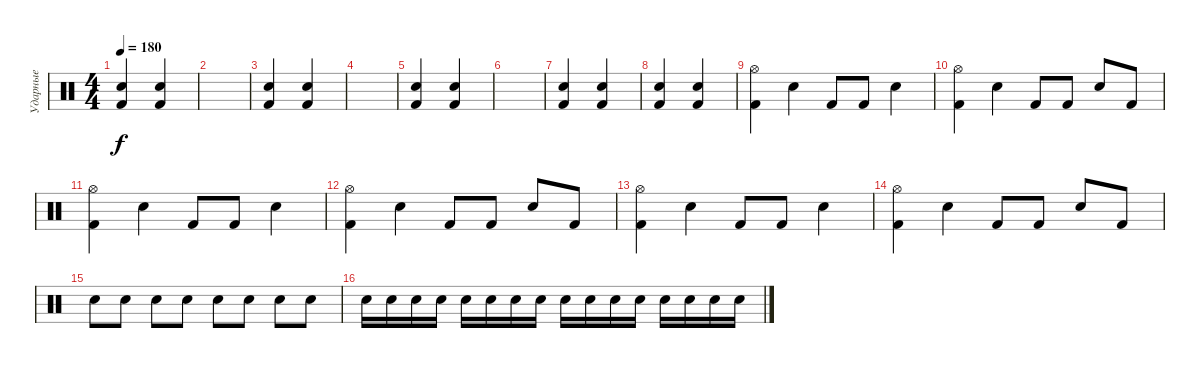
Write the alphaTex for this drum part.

\track ("Ударные" "Ударные") {instrument percussion}
\staff
\articulation defaults
\ts (4 4)
\tempo 180
\clef neutral
\ks c
("Kick (hit) 2" "Electric Snare (hit)").4{dy f} ("Kick (hit) 2" "Electric Snare (hit)").4 |
|
("Kick (hit) 2" "Electric Snare (hit)").4 ("Kick (hit) 2" "Electric Snare (hit)").4 |
|
("Kick (hit) 2" "Electric Snare (hit)").4 ("Kick (hit) 2" "Electric Snare (hit)").4 |
|
("Kick (hit) 2" "Electric Snare (hit)").4 ("Kick (hit) 2" "Electric Snare (hit)").4 |
("Kick (hit) 2" "Electric Snare (hit)").4 ("Kick (hit) 2" "Electric Snare (hit)").4 |
("Kick (hit) 2" "Hi-Hat (open)").4 "Electric Snare (hit)".4 "Kick (hit) 2".8 "Kick (hit) 2".8 "Electric Snare (hit)".4 |
("Kick (hit) 2" "Hi-Hat (open)").4 "Electric Snare (hit)".4 "Kick (hit) 2".8 "Kick (hit) 2".8 "Electric Snare (hit)".8 "Kick (hit) 2".8 |
("Kick (hit) 2" "Hi-Hat (open)").4 "Electric Snare (hit)".4 "Kick (hit) 2".8 "Kick (hit) 2".8 "Electric Snare (hit)".4 |
("Kick (hit) 2" "Hi-Hat (open)").4 "Electric Snare (hit)".4 "Kick (hit) 2".8 "Kick (hit) 2".8 "Electric Snare (hit)".8 "Kick (hit) 2".8 |
("Kick (hit) 2" "Hi-Hat (open)").4 "Electric Snare (hit)".4 "Kick (hit) 2".8 "Kick (hit) 2".8 "Electric Snare (hit)".4 |
("Kick (hit) 2" "Hi-Hat (open)").4 "Electric Snare (hit)".4 "Kick (hit) 2".8 "Kick (hit) 2".8 "Electric Snare (hit)".8 "Kick (hit) 2".8 |
"Electric Snare (hit)".8 "Electric Snare (hit)".8 "Electric Snare (hit)".8 "Electric Snare (hit)".8 "Electric Snare (hit)".8 "Electric Snare (hit)".8 "Electric Snare (hit)".8 "Electric Snare (hit)".8 |
"Electric Snare (hit)".16 "Electric Snare (hit)".16 "Electric Snare (hit)".16 "Electric Snare (hit)".16 "Electric Snare (hit)".16 "Electric Snare (hit)".16 "Electric Snare (hit)".16 "Electric Snare (hit)".16 "Electric Snare (hit)".16 "Electric Snare (hit)".16 "Electric Snare (hit)".16 "Electric Snare (hit)".16 "Electric Snare (hit)".16 "Electric Snare (hit)".16 "Electric Snare (hit)".16 "Electric Snare (hit)".16
